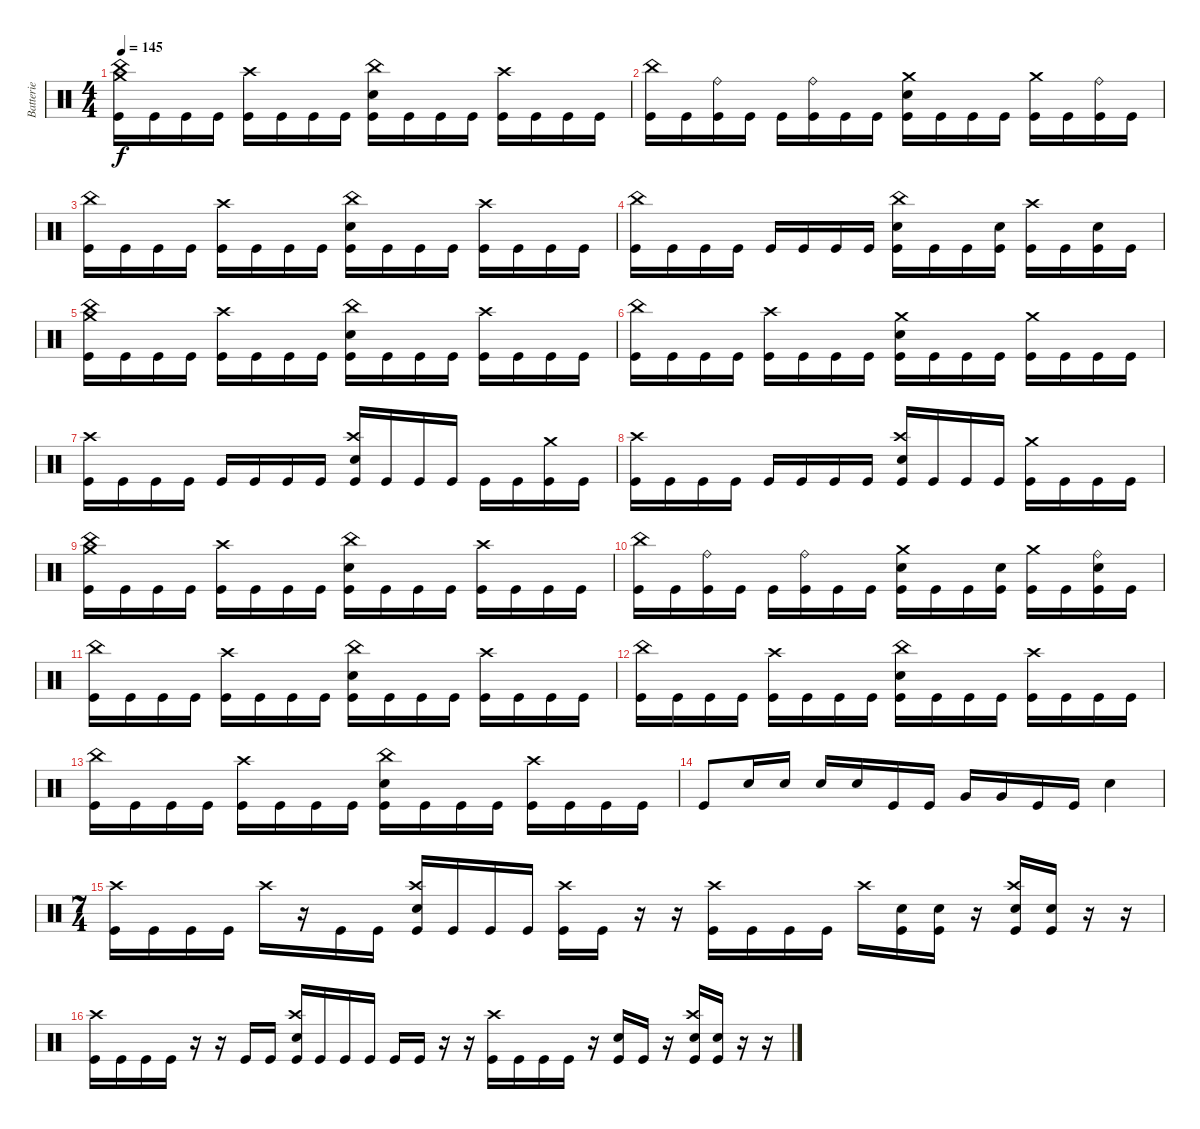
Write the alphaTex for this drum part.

\track ("Batterie" "Batterie") {instrument percussion}
\staff {score}
\articulation defaults
\ts (4 4)
\tempo 145
\clef neutral
\ks c
("China (hit)" "Crash medium (hit)" "Kick (hit)").16{dy f} "Kick (hit)".16 "Kick (hit)".16 "Kick (hit)".16 ("Crash high (hit)" "Kick (hit)").16 "Kick (hit)".16 "Kick (hit)".16 "Kick (hit)".16 ("China (hit)" "Electric Snare (hit)" "Kick (hit)").16 "Kick (hit)".16 "Kick (hit)".16 "Kick (hit)".16 ("Crash high (hit)" "Kick (hit)").16 "Kick (hit)".16 "Kick (hit)".16 "Kick (hit)".16 |
("China (hit)" "Kick (hit)").16 "Kick (hit)".16 ("Ride (bell)" "Kick (hit)").16 "Kick (hit)".16 "Kick (hit)".16 ("Ride (bell)" "Kick (hit)").16 "Kick (hit)".16 "Kick (hit)".16 ("Crash medium (hit)" "Electric Snare (hit)" "Kick (hit)").16 "Kick (hit)".16 "Kick (hit)".16 "Kick (hit)".16 ("Crash medium (hit)" "Kick (hit)").16 "Kick (hit)".16 ("Ride (bell)" "Kick (hit)").16 "Kick (hit)".16 |
("China (hit)" "Kick (hit)").16 "Kick (hit)".16 "Kick (hit)".16 "Kick (hit)".16 ("Crash high (hit)" "Kick (hit)").16 "Kick (hit)".16 "Kick (hit)".16 "Kick (hit)".16 ("China (hit)" "Electric Snare (hit)" "Kick (hit)").16 "Kick (hit)".16 "Kick (hit)".16 "Kick (hit)".16 ("Crash high (hit)" "Kick (hit)").16 "Kick (hit)".16 "Kick (hit)".16 "Kick (hit)".16 |
("China (hit)" "Kick (hit)").16 "Kick (hit)".16 "Kick (hit)".16 "Kick (hit)".16 "Kick (hit)".16 "Kick (hit)".16 "Kick (hit)".16 "Kick (hit)".16 ("China (hit)" "Electric Snare (hit)" "Kick (hit)").16 "Kick (hit)".16 "Kick (hit)".16 ("Electric Snare (hit)" "Kick (hit)").16 ("Crash high (hit)" "Kick (hit)").16 "Kick (hit)".16 ("Electric Snare (hit)" "Kick (hit)").16 "Kick (hit)".16 |
("China (hit)" "Crash medium (hit)" "Kick (hit)").16 "Kick (hit)".16 "Kick (hit)".16 "Kick (hit)".16 ("Crash high (hit)" "Kick (hit)").16 "Kick (hit)".16 "Kick (hit)".16 "Kick (hit)".16 ("China (hit)" "Electric Snare (hit)" "Kick (hit)").16 "Kick (hit)".16 "Kick (hit)".16 "Kick (hit)".16 ("Crash high (hit)" "Kick (hit)").16 "Kick (hit)".16 "Kick (hit)".16 "Kick (hit)".16 |
("China (hit)" "Kick (hit)").16 "Kick (hit)".16 "Kick (hit)".16 "Kick (hit)".16 ("Crash high (hit)" "Kick (hit)").16 "Kick (hit)".16 "Kick (hit)".16 "Kick (hit)".16 ("Crash medium (hit)" "Electric Snare (hit)" "Kick (hit)").16 "Kick (hit)".16 "Kick (hit)".16 "Kick (hit)".16 ("Crash medium (hit)" "Kick (hit)").16 "Kick (hit)".16 "Kick (hit)".16 "Kick (hit)".16 |
("Crash high (hit)" "Kick (hit)").16 "Kick (hit)".16 "Kick (hit)".16 "Kick (hit)".16 "Kick (hit)".16 "Kick (hit)".16 "Kick (hit)".16 "Kick (hit)".16 ("Crash high (hit)" "Electric Snare (hit)" "Kick (hit)").16 "Kick (hit)".16 "Kick (hit)".16 "Kick (hit)".16 "Kick (hit)".16 "Kick (hit)".16 ("Crash medium (hit)" "Kick (hit)").16 "Kick (hit)".16 |
("Crash high (hit)" "Kick (hit)").16 "Kick (hit)".16 "Kick (hit)".16 "Kick (hit)".16 "Kick (hit)".16 "Kick (hit)".16 "Kick (hit)".16 "Kick (hit)".16 ("Crash high (hit)" "Electric Snare (hit)" "Kick (hit)").16 "Kick (hit)".16 "Kick (hit)".16 "Kick (hit)".16 ("Crash medium (hit)" "Kick (hit)").16 "Kick (hit)".16 "Kick (hit)".16 "Kick (hit)".16 |
("China (hit)" "Crash medium (hit)" "Kick (hit)").16 "Kick (hit)".16 "Kick (hit)".16 "Kick (hit)".16 ("Crash high (hit)" "Kick (hit)").16 "Kick (hit)".16 "Kick (hit)".16 "Kick (hit)".16 ("China (hit)" "Electric Snare (hit)" "Kick (hit)").16 "Kick (hit)".16 "Kick (hit)".16 "Kick (hit)".16 ("Crash high (hit)" "Kick (hit)").16 "Kick (hit)".16 "Kick (hit)".16 "Kick (hit)".16 |
("China (hit)" "Kick (hit)").16 "Kick (hit)".16 ("Ride (bell)" "Kick (hit)").16 "Kick (hit)".16 "Kick (hit)".16 ("Ride (bell)" "Kick (hit)").16 "Kick (hit)".16 "Kick (hit)".16 ("Crash medium (hit)" "Electric Snare (hit)" "Kick (hit)").16 "Kick (hit)".16 "Kick (hit)".16 ("Electric Snare (hit)" "Kick (hit)").16 ("Crash medium (hit)" "Kick (hit)").16 "Kick (hit)".16 ("Ride (bell)" "Electric Snare (hit)" "Kick (hit)").16 "Kick (hit)".16 |
("China (hit)" "Kick (hit)").16 "Kick (hit)".16 "Kick (hit)".16 "Kick (hit)".16 ("Crash high (hit)" "Kick (hit)").16 "Kick (hit)".16 "Kick (hit)".16 "Kick (hit)".16 ("China (hit)" "Electric Snare (hit)" "Kick (hit)").16 "Kick (hit)".16 "Kick (hit)".16 "Kick (hit)".16 ("Crash high (hit)" "Kick (hit)").16 "Kick (hit)".16 "Kick (hit)".16 "Kick (hit)".16 |
("China (hit)" "Kick (hit)").16 "Kick (hit)".16 "Kick (hit)".16 "Kick (hit)".16 ("Crash high (hit)" "Kick (hit)").16 "Kick (hit)".16 "Kick (hit)".16 "Kick (hit)".16 ("China (hit)" "Electric Snare (hit)" "Kick (hit)").16 "Kick (hit)".16 "Kick (hit)".16 "Kick (hit)".16 ("Crash high (hit)" "Kick (hit)").16 "Kick (hit)".16 "Kick (hit)".16 "Kick (hit)".16 |
("China (hit)" "Kick (hit)").16 "Kick (hit)".16 "Kick (hit)".16 "Kick (hit)".16 ("Crash high (hit)" "Kick (hit)").16 "Kick (hit)".16 "Kick (hit)".16 "Kick (hit)".16 ("China (hit)" "Electric Snare (hit)" "Kick (hit)").16 "Kick (hit)".16 "Kick (hit)".16 "Kick (hit)".16 ("Crash high (hit)" "Kick (hit)").16 "Kick (hit)".16 "Kick (hit)".16 "Kick (hit)".16 |
"Kick (hit)".8 "Electric Snare (hit)".16 "Electric Snare (hit)".16 "Electric Snare (hit)".16 "Electric Snare (hit)".16 "Kick (hit)".16 "Kick (hit)".16 "Very Low Tom (hit)".16 "Very Low Tom (hit)".16 "Kick (hit)".16 "Kick (hit)".16 "Electric Snare (hit)".4 |
\ts (7 4)
("Crash high (hit)" "Kick (hit)").16 "Kick (hit)".16 "Kick (hit)".16 "Kick (hit)".16 "Crash high (hit)".16 r.16 "Kick (hit)".16 "Kick (hit)".16 ("Crash high (hit)" "Electric Snare (hit)" "Kick (hit)").16 "Kick (hit)".16 "Kick (hit)".16 "Kick (hit)".16 ("Crash high (hit)" "Kick (hit)").16 "Kick (hit)".16 r.16 r.16 ("Crash high (hit)" "Kick (hit)").16 "Kick (hit)".16 "Kick (hit)".16 "Kick (hit)".16 "Crash high (hit)".16 ("Electric Snare (hit)" "Kick (hit)").16 ("Electric Snare (hit)" "Kick (hit)").16 r.16 ("Crash high (hit)" "Electric Snare (hit)" "Kick (hit)").16 ("Electric Snare (hit)" "Kick (hit)").16 r.16 r.16 |
("Crash high (hit)" "Kick (hit)").16 "Kick (hit)".16 "Kick (hit)".16 "Kick (hit)".16 r.16 r.16 "Kick (hit)".16 "Kick (hit)".16 ("Crash high (hit)" "Electric Snare (hit)" "Kick (hit)").16 "Kick (hit)".16 "Kick (hit)".16 "Kick (hit)".16 "Kick (hit)".16 "Kick (hit)".16 r.16 r.16 ("Crash high (hit)" "Kick (hit)").16 "Kick (hit)".16 "Kick (hit)".16 "Kick (hit)".16 r.16 ("Electric Snare (hit)" "Kick (hit)").16 "Kick (hit)".16 r.16 ("Crash high (hit)" "Electric Snare (hit)" "Kick (hit)").16 ("Electric Snare (hit)" "Kick (hit)").16 r.16 r.16
